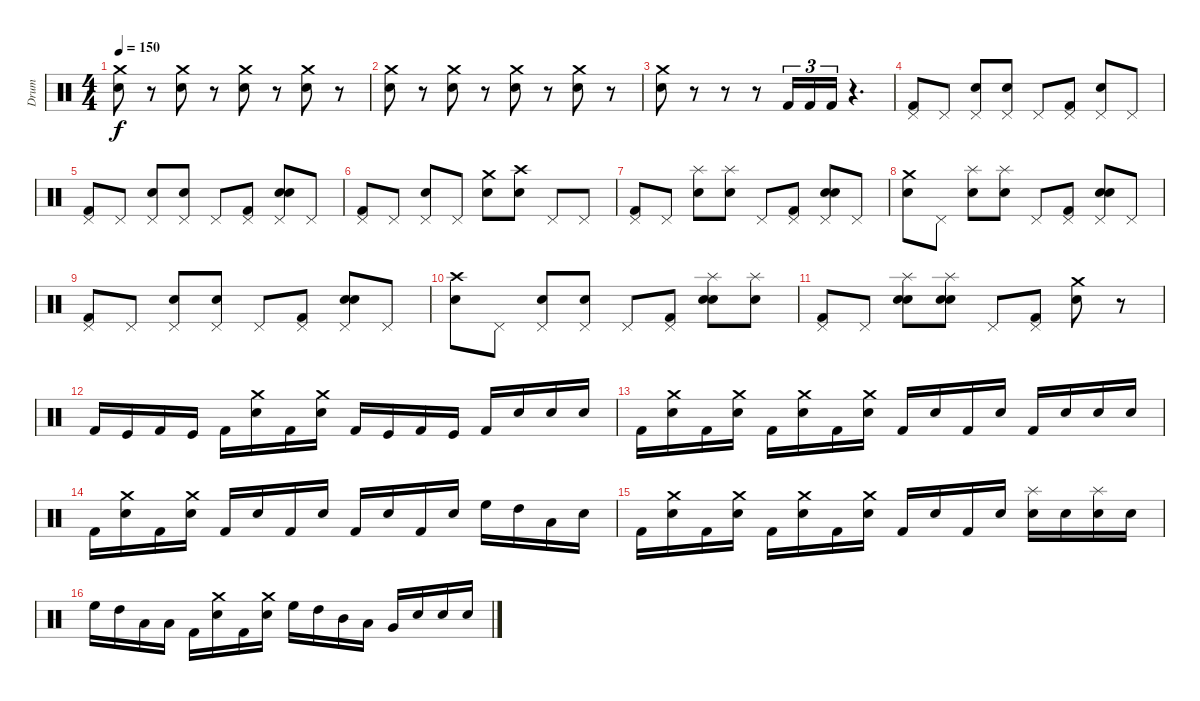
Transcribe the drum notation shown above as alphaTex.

\track ("Drum" "Drum") {instrument percussion}
\staff {score}
\articulation defaults
\ts (4 4)
\tempo 150
\clef neutral
\ks c
("Crash medium (hit)" "Electric Snare (hit)").8{dy f} r.8 ("Crash medium (hit)" "Electric Snare (hit)").8 r.8 ("Crash medium (hit)" "Electric Snare (hit)").8 r.8 ("Crash medium (hit)" "Electric Snare (hit)").8 r.8 |
("Crash medium (hit)" "Electric Snare (hit)").8 r.8 ("Crash medium (hit)" "Electric Snare (hit)").8 r.8 ("Crash medium (hit)" "Electric Snare (hit)").8 r.8 ("Crash medium (hit)" "Electric Snare (hit)").8 r.8 |
("Crash medium (hit)" "Electric Snare (hit)").8 r.8 r.8 r.8 "Kick (hit) 2".16{tu (3 2)} "Kick (hit) 2".16{tu (3 2)} "Kick (hit) 2".16{tu (3 2)} r.4{d} |
("Pedal Hi-Hat (hit)" "Kick (hit) 2").8 "Pedal Hi-Hat (hit)".8 ("Pedal Hi-Hat (hit)" "Snare (hit) 2").8 ("Pedal Hi-Hat (hit)" "Snare (hit) 2").8 "Pedal Hi-Hat (hit)".8 ("Pedal Hi-Hat (hit)" "Kick (hit) 2").8 ("Pedal Hi-Hat (hit)" "Snare (hit) 2").8 "Pedal Hi-Hat (hit)".8 |
("Pedal Hi-Hat (hit)" "Kick (hit) 2").8 "Pedal Hi-Hat (hit)".8 ("Pedal Hi-Hat (hit)" "Electric Snare (hit)").8 ("Pedal Hi-Hat (hit)" "Electric Snare (hit)").8 "Pedal Hi-Hat (hit)".8 ("Pedal Hi-Hat (hit)" "Kick (hit) 2").8 ("Pedal Hi-Hat (hit)" "Electric Snare (hit)" "Electric Snare (hit)").8 "Pedal Hi-Hat (hit)".8 |
("Pedal Hi-Hat (hit)" "Kick (hit) 2").8 "Pedal Hi-Hat (hit)".8 ("Pedal Hi-Hat (hit)" "Snare (hit) 2").8 "Pedal Hi-Hat (hit)".8 ("Crash medium (hit)" "Electric Snare (hit)").8 ("Crash high (hit)" "Snare (hit) 2").8 "Pedal Hi-Hat (hit)".8 "Pedal Hi-Hat (hit)".8 |
("Pedal Hi-Hat (hit)" "Kick (hit) 2").8 "Pedal Hi-Hat (hit)".8 ("Splash (hit)" "Electric Snare (hit)").8 ("Splash (hit)" "Electric Snare (hit)").8 "Pedal Hi-Hat (hit)".8 ("Pedal Hi-Hat (hit)" "Kick (hit) 2").8 ("Pedal Hi-Hat (hit)" "Electric Snare (hit)" "Electric Snare (hit)").8 "Pedal Hi-Hat (hit)".8 |
("Crash medium (hit)" "Electric Snare (hit)").8 "Pedal Hi-Hat (hit)".8 ("Splash (hit)" "Electric Snare (hit)").8 ("Splash (hit)" "Electric Snare (hit)").8 "Pedal Hi-Hat (hit)".8 ("Pedal Hi-Hat (hit)" "Kick (hit) 2").8 ("Pedal Hi-Hat (hit)" "Electric Snare (hit)" "Electric Snare (hit)").8 "Pedal Hi-Hat (hit)".8 |
("Pedal Hi-Hat (hit)" "Kick (hit) 2").8 "Pedal Hi-Hat (hit)".8 ("Pedal Hi-Hat (hit)" "Electric Snare (hit)").8 ("Pedal Hi-Hat (hit)" "Electric Snare (hit)").8 "Pedal Hi-Hat (hit)".8 ("Pedal Hi-Hat (hit)" "Kick (hit) 2").8 ("Pedal Hi-Hat (hit)" "Electric Snare (hit)" "Electric Snare (hit)").8 "Pedal Hi-Hat (hit)".8 |
("Crash high (hit)" "Electric Snare (hit)").8 "Pedal Hi-Hat (hit)".8 ("Pedal Hi-Hat (hit)" "Electric Snare (hit)").8 ("Pedal Hi-Hat (hit)" "Electric Snare (hit)").8 "Pedal Hi-Hat (hit)".8 ("Pedal Hi-Hat (hit)" "Kick (hit) 2").8 ("Splash (hit)" "Electric Snare (hit)" "Electric Snare (hit)").8 ("Splash (hit)" "Electric Snare (hit)").8 |
("Pedal Hi-Hat (hit)" "Kick (hit) 2").8 "Pedal Hi-Hat (hit)".8 ("Splash (hit)" "Electric Snare (hit)" "Electric Snare (hit)").8 ("Splash (hit)" "Electric Snare (hit)" "Electric Snare (hit)").8 "Pedal Hi-Hat (hit)".8 ("Pedal Hi-Hat (hit)" "Kick (hit) 2").8 ("Crash medium (hit)" "Electric Snare (hit)").8 r.8 |
"Kick (hit) 2".16 "Kick (hit)".16 "Kick (hit) 2".16 "Kick (hit)".16 "Kick (hit) 2".16 ("Crash medium (hit)" "Electric Snare (hit)").16 "Kick (hit) 2".16 ("Crash medium (hit)" "Electric Snare (hit)").16 "Kick (hit) 2".16 "Kick (hit)".16 "Kick (hit) 2".16 "Kick (hit)".16 "Kick (hit) 2".16 "Electric Snare (hit)".16 "Electric Snare (hit)".16 "Electric Snare (hit)".16 |
"Kick (hit) 2".16 ("Crash medium (hit)" "Electric Snare (hit)").16 "Kick (hit) 2".16 ("Crash medium (hit)" "Electric Snare (hit)").16 "Kick (hit) 2".16 ("Crash medium (hit)" "Electric Snare (hit)").16 "Kick (hit) 2".16 ("Crash medium (hit)" "Electric Snare (hit)").16 "Kick (hit) 2".16 "Electric Snare (hit)".16 "Kick (hit) 2".16 "Electric Snare (hit)".16 "Kick (hit) 2".16 "Electric Snare (hit)".16 "Electric Snare (hit)".16 "Electric Snare (hit)".16 |
"Kick (hit) 2".16 ("Crash medium (hit)" "Electric Snare (hit)").16 "Kick (hit) 2".16 ("Crash medium (hit)" "Electric Snare (hit)").16 "Kick (hit) 2".16 "Electric Snare (hit)".16 "Kick (hit) 2".16 "Electric Snare (hit)".16 "Kick (hit) 2".16 "Electric Snare (hit)".16 "Kick (hit) 2".16 "Electric Snare (hit)".16 "High Floor Tom (hit)".16 "High Tom (hit)".16 "Low Tom (hit)".16 "Electric Snare (hit)".16 |
"Kick (hit) 2".16 ("Crash medium (hit)" "Electric Snare (hit)").16 "Kick (hit) 2".16 ("Crash medium (hit)" "Electric Snare (hit)").16 "Kick (hit) 2".16 ("Crash medium (hit)" "Electric Snare (hit)").16 "Kick (hit) 2".16 ("Crash medium (hit)" "Electric Snare (hit)").16 "Kick (hit) 2".16 "Electric Snare (hit)".16 "Kick (hit) 2".16 "Snare (hit) 2".16 ("Splash (hit)" "Electric Snare (hit)").16 "Snare (hit) 2".16 ("Splash (hit)" "Electric Snare (hit)").16 "Snare (hit) 2".16 |
"High Floor Tom (hit)".16 "High Tom (hit)".16 "Low Tom (hit)".16 "Low Floor Tom (hit)".16 "Kick (hit) 2".16 ("Crash medium (hit)" "Electric Snare (hit)").16 "Kick (hit) 2".16 ("Crash medium (hit)" "Electric Snare (hit)").16 "High Floor Tom (hit)".16 "High Tom (hit)".16 "Mid Tom (hit)".16 "Low Tom (hit)".16 "Very Low Tom (hit)".16 "Electric Snare (hit)".16 "Electric Snare (hit)".16 "Electric Snare (hit)".16
